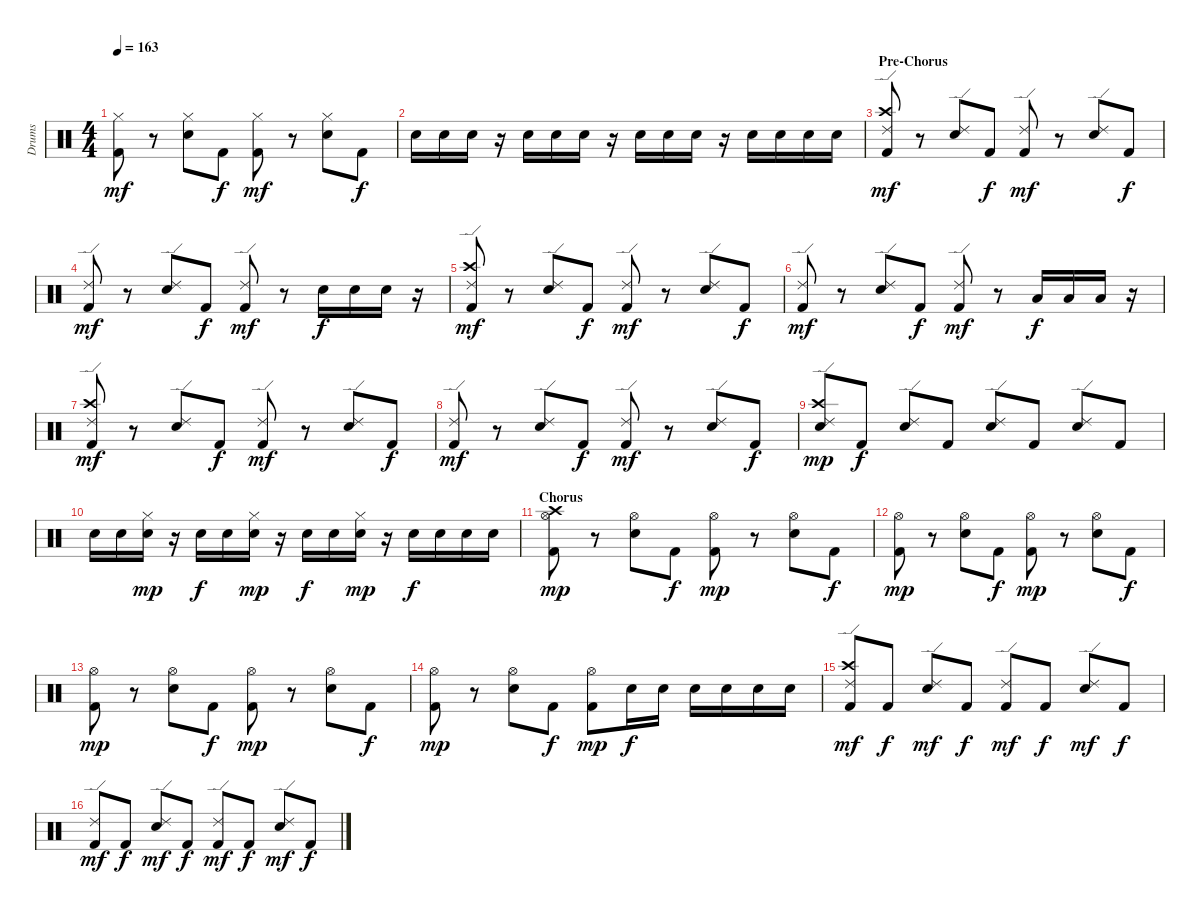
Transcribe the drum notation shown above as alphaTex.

\track ("Drums" "Drums") {instrument percussion}
\staff {score}
\articulation defaults
\ts (4 4)
\tempo 163
\clef neutral
\ks c
("Hi-Hat (closed)" "Kick (hit) 2").8{dy mf} r.8 ("Hi-Hat (closed)" "Electric Snare (hit)").8 "Kick (hit) 2".8{dy f} ("Hi-Hat (closed)" "Kick (hit) 2").8{dy mf} r.8 ("Hi-Hat (closed)" "Electric Snare (hit)").8 "Kick (hit) 2".8{dy f} |
"Electric Snare (hit)".16 "Electric Snare (hit)".16 "Electric Snare (hit)".16 r.16 "Electric Snare (hit)".16 "Electric Snare (hit)".16 "Electric Snare (hit)".16 r.16 "Electric Snare (hit)".16 "Electric Snare (hit)".16 "Electric Snare (hit)".16 r.16 "Electric Snare (hit)".16 "Electric Snare (hit)".16 "Electric Snare (hit)".16 "Electric Snare (hit)".16 |
\section ("" "Pre-Chorus")
("Crash high (hit)" "Ride (edge) 2" "Kick (hit) 2").8{dy mf} r.8 ("Ride (edge) 2" "Electric Snare (hit)").8 "Kick (hit) 2".8{dy f} ("Ride (edge) 2" "Kick (hit) 2").8{dy mf} r.8 ("Ride (edge) 2" "Electric Snare (hit)").8 "Kick (hit) 2".8{dy f} |
("Ride (edge) 2" "Kick (hit) 2").8{dy mf} r.8 ("Ride (edge) 2" "Electric Snare (hit)").8 "Kick (hit) 2".8{dy f} ("Ride (edge) 2" "Kick (hit) 2").8{dy mf} r.8 "Electric Snare (hit)".16{dy f} "Electric Snare (hit)".16 "Electric Snare (hit)".16 r.16 |
("Crash high (hit)" "Ride (edge) 2" "Kick (hit) 2").8{dy mf} r.8 ("Ride (edge) 2" "Electric Snare (hit)").8 "Kick (hit) 2".8{dy f} ("Ride (edge) 2" "Kick (hit) 2").8{dy mf} r.8 ("Ride (edge) 2" "Electric Snare (hit)").8 "Kick (hit) 2".8{dy f} |
("Ride (edge) 2" "Kick (hit) 2").8{dy mf} r.8 ("Ride (edge) 2" "Electric Snare (hit)").8 "Kick (hit) 2".8{dy f} ("Ride (edge) 2" "Kick (hit) 2").8{dy mf} r.8 "Low Floor Tom (hit)".16{dy f} "Low Floor Tom (hit)".16 "Low Floor Tom (hit)".16 r.16 |
("Crash high (hit)" "Ride (edge) 2" "Kick (hit) 2").8{dy mf} r.8 ("Ride (edge) 2" "Electric Snare (hit)").8 "Kick (hit) 2".8{dy f} ("Ride (edge) 2" "Kick (hit) 2").8{dy mf} r.8 ("Ride (edge) 2" "Electric Snare (hit)").8 "Kick (hit) 2".8{dy f} |
("Ride (edge) 2" "Kick (hit) 2").8{dy mf} r.8 ("Ride (edge) 2" "Electric Snare (hit)").8 "Kick (hit) 2".8{dy f} ("Ride (edge) 2" "Kick (hit) 2").8{dy mf} r.8 ("Ride (edge) 2" "Electric Snare (hit)").8 "Kick (hit) 2".8{dy f} |
("Crash high (hit)" "Ride (edge) 2" "Electric Snare (hit)").8{dy mp} "Kick (hit) 2".8{dy f} ("Ride (edge) 2" "Electric Snare (hit)").8 "Kick (hit) 2".8 ("Ride (edge) 2" "Electric Snare (hit)").8 "Kick (hit) 2".8 ("Ride (edge) 2" "Electric Snare (hit)").8 "Kick (hit) 2".8 |
"Electric Snare (hit)".16 "Electric Snare (hit)".16 ("Hi-Hat (closed)" "Electric Snare (hit)").16{dy mp} r.16 "Electric Snare (hit)".16{dy f} "Electric Snare (hit)".16 ("Hi-Hat (closed)" "Electric Snare (hit)").16{dy mp} r.16 "Electric Snare (hit)".16{dy f} "Electric Snare (hit)".16 ("Hi-Hat (closed)" "Electric Snare (hit)").16{dy mp} r.16 "Electric Snare (hit)".16{dy f} "Electric Snare (hit)".16 "Electric Snare (hit)".16 "Electric Snare (hit)".16 |
\section ("" "Chorus")
("Crash high (hit)" "Hi-Hat (open)" "Kick (hit) 2").8{dy mp} r.8 ("Hi-Hat (open)" "Electric Snare (hit)").8 "Kick (hit) 2".8{dy f} ("Hi-Hat (open)" "Kick (hit) 2").8{dy mp} r.8 ("Hi-Hat (open)" "Electric Snare (hit)").8 "Kick (hit) 2".8{dy f} |
("Hi-Hat (open)" "Kick (hit) 2").8{dy mp} r.8 ("Hi-Hat (open)" "Electric Snare (hit)").8 "Kick (hit) 2".8{dy f} ("Hi-Hat (open)" "Kick (hit) 2").8{dy mp} r.8 ("Hi-Hat (open)" "Electric Snare (hit)").8 "Kick (hit) 2".8{dy f} |
("Hi-Hat (open)" "Kick (hit) 2").8{dy mp} r.8 ("Hi-Hat (open)" "Electric Snare (hit)").8 "Kick (hit) 2".8{dy f} ("Hi-Hat (open)" "Kick (hit) 2").8{dy mp} r.8 ("Hi-Hat (open)" "Electric Snare (hit)").8 "Kick (hit) 2".8{dy f} |
("Hi-Hat (open)" "Kick (hit) 2").8{dy mp} r.8 ("Hi-Hat (open)" "Electric Snare (hit)").8 "Kick (hit) 2".8{dy f} ("Hi-Hat (open)" "Kick (hit) 2").8{dy mp} "Electric Snare (hit)".16{dy f} "Electric Snare (hit)".16 "Electric Snare (hit)".16 "Electric Snare (hit)".16 "Electric Snare (hit)".16 "Electric Snare (hit)".16 |
("Crash high (hit)" "Ride (edge) 2" "Kick (hit) 2").8{dy mf} "Kick (hit) 2".8{dy f} ("Ride (edge) 2" "Electric Snare (hit)").8{dy mf} "Kick (hit) 2".8{dy f} ("Ride (edge) 2" "Kick (hit) 2").8{dy mf} "Kick (hit) 2".8{dy f} ("Ride (edge) 2" "Electric Snare (hit)").8{dy mf} "Kick (hit) 2".8{dy f} |
("Ride (edge) 2" "Kick (hit) 2").8{dy mf} "Kick (hit) 2".8{dy f} ("Ride (edge) 2" "Electric Snare (hit)").8{dy mf} "Kick (hit) 2".8{dy f} ("Ride (edge) 2" "Kick (hit) 2").8{dy mf} "Kick (hit) 2".8{dy f} ("Ride (edge) 2" "Electric Snare (hit)").8{dy mf} "Kick (hit) 2".8{dy f}
